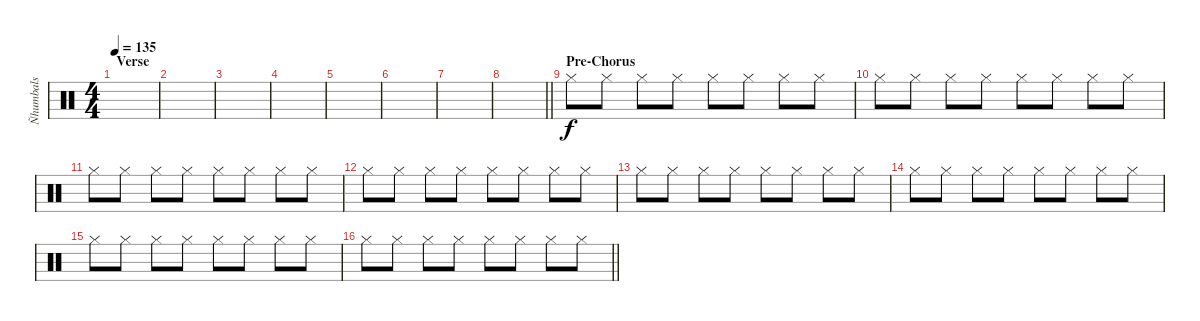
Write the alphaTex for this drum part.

\track ("Ñhumbals" "Ñhumbals") {instrument percussion}
\staff {score}
\articulation defaults
\ts (4 4)
\section ("" "Verse")
\tempo 135
\clef neutral
\ks c
|
|
|
|
|
|
|
\barLineRight lightlight
|
\section ("" "Pre-Chorus")
"Hi-Hat (closed)".8 "Hi-Hat (closed)".8 "Hi-Hat (closed)".8 "Hi-Hat (closed)".8 "Hi-Hat (closed)".8 "Hi-Hat (closed)".8 "Hi-Hat (closed)".8 "Hi-Hat (closed)".8 |
"Hi-Hat (closed)".8 "Hi-Hat (closed)".8 "Hi-Hat (closed)".8 "Hi-Hat (closed)".8 "Hi-Hat (closed)".8 "Hi-Hat (closed)".8 "Hi-Hat (closed)".8 "Hi-Hat (closed)".8 |
"Hi-Hat (closed)".8 "Hi-Hat (closed)".8 "Hi-Hat (closed)".8 "Hi-Hat (closed)".8 "Hi-Hat (closed)".8 "Hi-Hat (closed)".8 "Hi-Hat (closed)".8 "Hi-Hat (closed)".8 |
"Hi-Hat (closed)".8 "Hi-Hat (closed)".8 "Hi-Hat (closed)".8 "Hi-Hat (closed)".8 "Hi-Hat (closed)".8 "Hi-Hat (closed)".8 "Hi-Hat (closed)".8 "Hi-Hat (closed)".8 |
"Hi-Hat (closed)".8 "Hi-Hat (closed)".8 "Hi-Hat (closed)".8 "Hi-Hat (closed)".8 "Hi-Hat (closed)".8 "Hi-Hat (closed)".8 "Hi-Hat (closed)".8 "Hi-Hat (closed)".8 |
"Hi-Hat (closed)".8 "Hi-Hat (closed)".8 "Hi-Hat (closed)".8 "Hi-Hat (closed)".8 "Hi-Hat (closed)".8 "Hi-Hat (closed)".8 "Hi-Hat (closed)".8 "Hi-Hat (closed)".8 |
"Hi-Hat (closed)".8 "Hi-Hat (closed)".8 "Hi-Hat (closed)".8 "Hi-Hat (closed)".8 "Hi-Hat (closed)".8 "Hi-Hat (closed)".8 "Hi-Hat (closed)".8 "Hi-Hat (closed)".8 |
\barLineRight lightlight "Hi-Hat (closed)".8 "Hi-Hat (closed)".8 "Hi-Hat (closed)".8 "Hi-Hat (closed)".8 "Hi-Hat (closed)".8 "Hi-Hat (closed)".8 "Hi-Hat (closed)".8 "Hi-Hat (closed)".8
